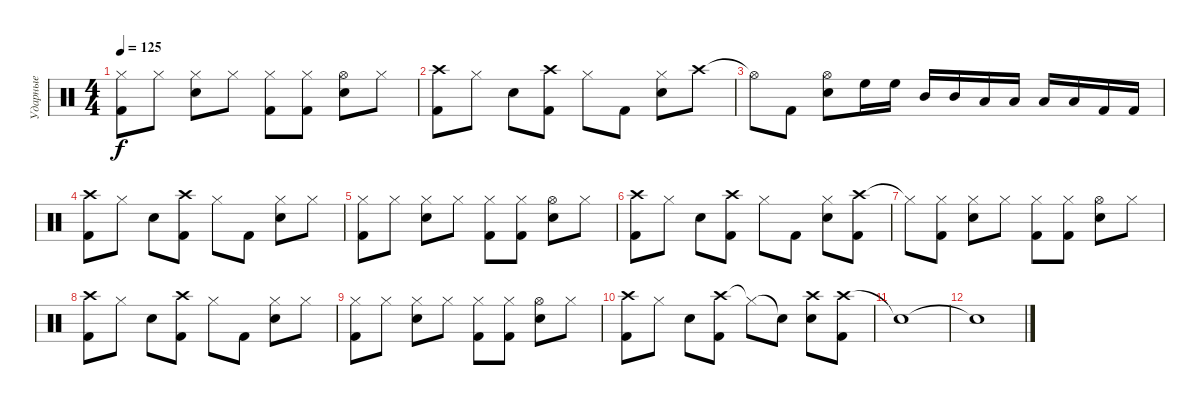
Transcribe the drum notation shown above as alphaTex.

\track ("Ударные" "Ударные") {instrument percussion}
\staff {score}
\articulation defaults
\ts (4 4)
\tempo 125
\clef neutral
\ks c
("Hi-Hat (closed)" "Kick (hit) 2").8{dy f} "Hi-Hat (closed)".8 ("Hi-Hat (closed)" "Snare (hit) 2").8 "Hi-Hat (closed)".8 ("Hi-Hat (closed)" "Kick (hit) 2").8 ("Hi-Hat (closed)" "Kick (hit) 2").8 ("Hi-Hat (open)" "Snare (hit) 2").8 "Hi-Hat (closed)".8 |
("Crash high (hit)" "Kick (hit) 2").8 "Hi-Hat (closed)".8 "Snare (hit) 2".8 ("Crash high (hit)" "Kick (hit) 2").8 "Hi-Hat (closed)".8 "Kick (hit) 2".8 ("Hi-Hat (closed)" "Snare (hit) 2").8 "Crash high (hit)".8 |
"Hi-Hat (open)"{t}.8 "Kick (hit) 2".8 ("Hi-Hat (open)" "Snare (hit) 2").8 "High Floor Tom (hit)".16 "High Floor Tom (hit)".16 "Mid Tom (hit)".16 "Mid Tom (hit)".16 "Low Tom (hit)".16 "Low Tom (hit)".16 "Low Floor Tom (hit)".16 "Low Floor Tom (hit)".16 "Kick (hit) 2".16 "Kick (hit) 2".16 |
("Crash high (hit)" "Kick (hit) 2").8 "Hi-Hat (closed)".8 "Snare (hit) 2".8 ("Crash high (hit)" "Kick (hit) 2").8 "Hi-Hat (closed)".8 "Kick (hit) 2".8 ("Hi-Hat (closed)" "Snare (hit) 2").8 "Hi-Hat (closed)".8 |
("Hi-Hat (closed)" "Kick (hit) 2").8 "Hi-Hat (closed)".8 ("Hi-Hat (closed)" "Snare (hit) 2").8 "Hi-Hat (closed)".8 ("Hi-Hat (closed)" "Kick (hit) 2").8 ("Hi-Hat (closed)" "Kick (hit) 2").8 ("Hi-Hat (open)" "Snare (hit) 2").8 "Hi-Hat (closed)".8 |
("Crash high (hit)" "Kick (hit) 2").8 "Hi-Hat (closed)".8 "Snare (hit) 2".8 ("Crash high (hit)" "Kick (hit) 2").8 "Hi-Hat (closed)".8 "Kick (hit) 2".8 ("Hi-Hat (closed)" "Snare (hit) 2").8 ("Crash high (hit)" "Kick (hit) 2").8 |
"Hi-Hat (closed)"{t}.8 ("Hi-Hat (closed)" "Kick (hit) 2").8 ("Hi-Hat (closed)" "Snare (hit) 2").8 "Hi-Hat (closed)".8 ("Hi-Hat (closed)" "Kick (hit) 2").8 ("Hi-Hat (closed)" "Kick (hit) 2").8 ("Hi-Hat (open)" "Snare (hit) 2").8 "Hi-Hat (closed)".8 |
("Crash high (hit)" "Kick (hit) 2").8 "Hi-Hat (closed)".8 "Snare (hit) 2".8 ("Crash high (hit)" "Kick (hit) 2").8 "Hi-Hat (closed)".8 "Kick (hit) 2".8 ("Hi-Hat (closed)" "Snare (hit) 2").8 "Hi-Hat (closed)".8 |
("Hi-Hat (closed)" "Kick (hit) 2").8 "Hi-Hat (closed)".8 ("Hi-Hat (closed)" "Snare (hit) 2").8 "Hi-Hat (closed)".8 ("Hi-Hat (closed)" "Kick (hit) 2").8 ("Hi-Hat (closed)" "Kick (hit) 2").8 ("Hi-Hat (open)" "Snare (hit) 2").8 "Hi-Hat (closed)".8 |
("Crash high (hit)" "Kick (hit) 2").8 "Hi-Hat (closed)".8 "Snare (hit) 2".8 ("Crash high (hit)" "Kick (hit) 2").8 "Hi-Hat (closed)"{t}.8 "Snare (hit)"{t}.8 ("Crash high (hit)" "Snare (hit) 2").8 ("Crash high (hit)" "Kick (hit) 2").8 |
"Snare (hit)"{t}.1 |
"Snare (hit)"{t}.1
